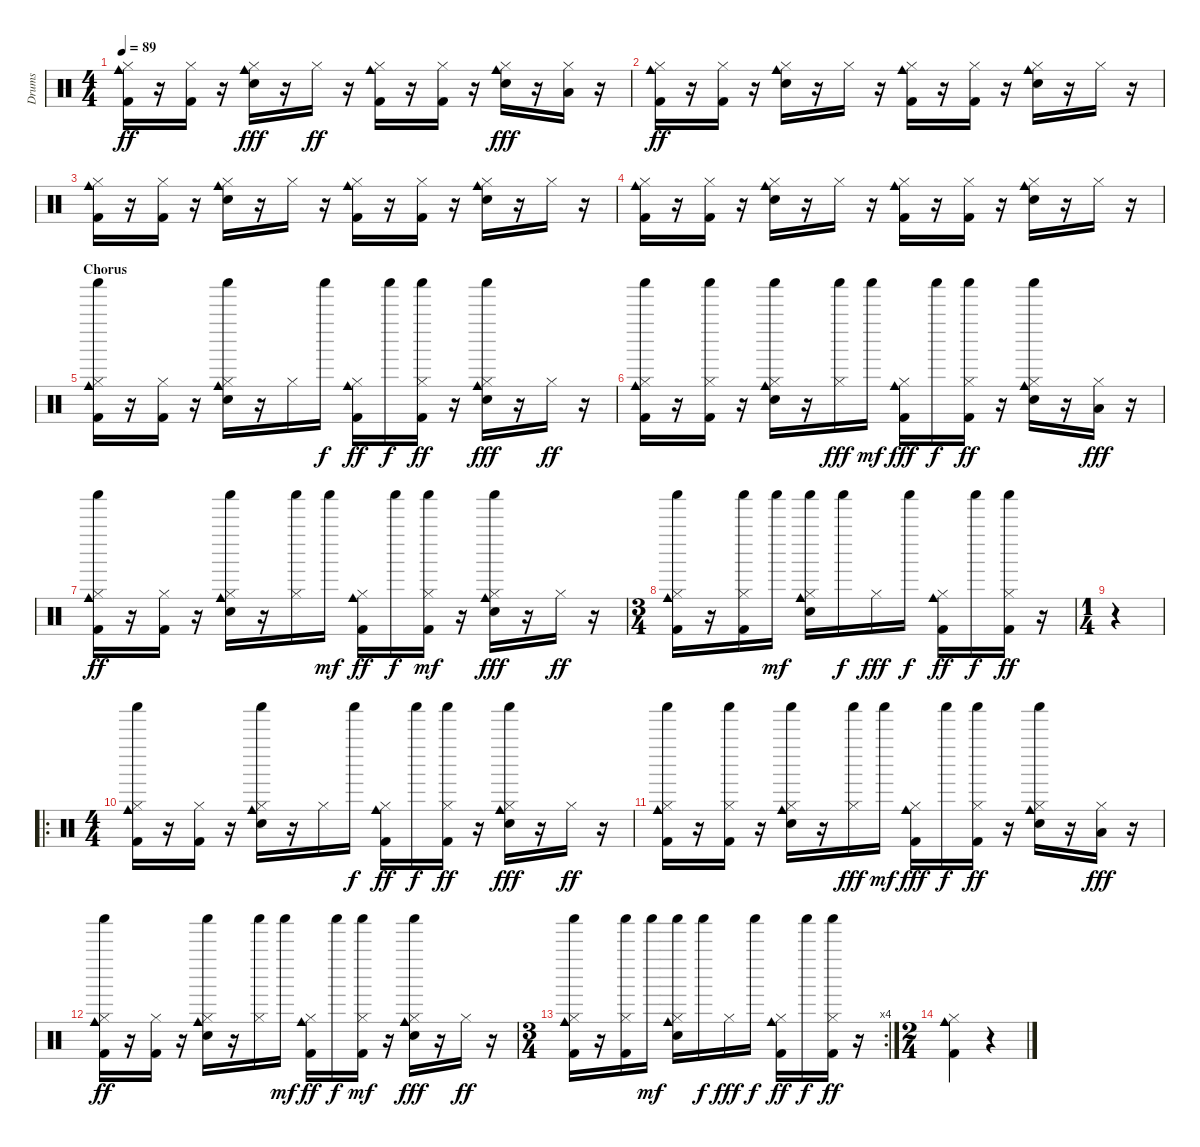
\track ("Drums" "Drums") {instrument percussion}
\staff {score}
\articulation defaults
\ts (4 4)
\tempo 89
\clef neutral
\ks c
("Kick (hit) 2" "Cowbell medium (hit)" "Hi-Hat (closed)").16{dy ff} r.16 ("Kick (hit) 2" "Hi-Hat (closed)").16 r.16 ("Hi-Hat (closed)" "Snare (hit) 2" "Cowbell medium (hit)").16{dy fff} r.16 "Hi-Hat (closed)".16{dy ff} r.16 ("Hi-Hat (closed)" "Kick (hit) 2" "Cowbell medium (hit)").16 r.16 ("Hi-Hat (closed)" "Kick (hit) 2").16 r.16 ("Hi-Hat (closed)" "Snare (hit) 2" "Cowbell medium (hit)").16{dy fff} r.16 ("Hi-Hat (closed)" "Low Floor Tom (hit)").16 r.16 |
("Hi-Hat (closed)" "Cowbell medium (hit)" "Kick (hit) 2").16{dy ff} r.16 ("Kick (hit) 2" "Hi-Hat (closed)").16 r.16 ("Snare (hit) 2" "Hi-Hat (closed)" "Cowbell medium (hit)").16 r.16 "Hi-Hat (closed)".16 r.16 ("Hi-Hat (closed)" "Kick (hit) 2" "Cowbell medium (hit)").16 r.16 ("Kick (hit) 2" "Hi-Hat (closed)").16 r.16 ("Snare (hit) 2" "Hi-Hat (closed)" "Cowbell medium (hit)").16 r.16 "Hi-Hat (closed)".16 r.16 |
("Hi-Hat (closed)" "Cowbell medium (hit)" "Kick (hit) 2").16 r.16 ("Kick (hit) 2" "Hi-Hat (closed)").16 r.16 ("Snare (hit) 2" "Hi-Hat (closed)" "Cowbell medium (hit)").16 r.16 "Hi-Hat (closed)".16 r.16 ("Hi-Hat (closed)" "Kick (hit) 2" "Cowbell medium (hit)").16 r.16 ("Kick (hit) 2" "Hi-Hat (closed)").16 r.16 ("Snare (hit) 2" "Hi-Hat (closed)" "Cowbell medium (hit)").16 r.16 "Hi-Hat (closed)".16 r.16 |
("Hi-Hat (closed)" "Cowbell medium (hit)" "Kick (hit) 2").16 r.16 ("Kick (hit) 2" "Hi-Hat (closed)").16 r.16 ("Snare (hit) 2" "Hi-Hat (closed)" "Cowbell medium (hit)").16 r.16 "Hi-Hat (closed)".16 r.16 ("Hi-Hat (closed)" "Kick (hit) 2" "Cowbell medium (hit)").16 r.16 ("Kick (hit) 2" "Hi-Hat (closed)").16 r.16 ("Snare (hit) 2" "Hi-Hat (closed)" "Cowbell medium (hit)").16 r.16 "Hi-Hat (closed)".16 r.16 |
\section ("" "Chorus")
("Cowbell medium (hit)" "Hi-Hat (closed)" "Kick (hit) 2" "Shaker (hit)").16 r.16 ("Hi-Hat (closed)" "Kick (hit) 2").16 r.16 ("Cowbell medium (hit)" "Hi-Hat (closed)" "Shaker (hit)" "Snare (hit) 2").16 r.16 "Hi-Hat (closed)".16 "Shaker (hit)".16{dy f} ("Kick (hit) 2" "Hi-Hat (closed)" "Cowbell medium (hit)").16{dy ff} "Shaker (hit)".16{dy f} ("Hi-Hat (closed)" "Shaker (hit)" "Kick (hit) 2").16{dy ff} r.16 ("Cowbell medium (hit)" "Shaker (hit)" "Hi-Hat (closed)" "Snare (hit) 2").16{dy fff} r.16 "Hi-Hat (closed)".16{dy ff} r.16 |
("Cowbell medium (hit)" "Kick (hit) 2" "Hi-Hat (closed)" "Shaker (hit)").16 r.16 ("Kick (hit) 2" "Shaker (hit)" "Hi-Hat (closed)").16 r.16 ("Cowbell medium (hit)" "Snare (hit) 2" "Shaker (hit)" "Hi-Hat (closed)").16 r.16 ("Shaker (hit)" "Hi-Hat (closed)").16{dy fff} "Shaker (hit)".16{dy mf} ("Cowbell medium (hit)" "Kick (hit) 2" "Hi-Hat (closed)").16{dy fff} "Shaker (hit)".16{dy f} ("Kick (hit) 2" "Shaker (hit)" "Hi-Hat (closed)").16{dy ff} r.16 ("Hi-Hat (closed)" "Snare (hit) 2" "Cowbell medium (hit)" "Shaker (hit)").16 r.16 ("Low Floor Tom (hit)" "Hi-Hat (closed)").16{dy fff} r.16 |
("Shaker (hit)" "Hi-Hat (closed)" "Kick (hit) 2" "Cowbell medium (hit)").16{dy ff} r.16 ("Kick (hit) 2" "Hi-Hat (closed)").16 r.16 ("Cowbell medium (hit)" "Snare (hit) 2" "Shaker (hit)" "Hi-Hat (closed)").16 r.16 ("Shaker (hit)" "Hi-Hat (closed)").16 "Shaker (hit)".16{dy mf} ("Cowbell medium (hit)" "Kick (hit) 2" "Hi-Hat (closed)").16{dy ff} "Shaker (hit)".16{dy f} ("Hi-Hat (closed)" "Kick (hit) 2" "Shaker (hit)").16{dy mf} r.16 ("Cowbell medium (hit)" "Hi-Hat (closed)" "Snare (hit) 2" "Shaker (hit)").16{dy fff} r.16 "Hi-Hat (closed)".16{dy ff} r.16 |
\ts (3 4)
("Shaker (hit)" "Hi-Hat (closed)" "Cowbell medium (hit)" "Kick (hit) 2").16 r.16 ("Shaker (hit)" "Hi-Hat (closed)" "Kick (hit) 2").16 "Shaker (hit)".16{dy mf} ("Hi-Hat (closed)" "Snare (hit) 2" "Shaker (hit)" "Cowbell medium (hit)").16 "Shaker (hit)".16{dy f} "Hi-Hat (closed)".16{dy fff} "Shaker (hit)".16{dy f} ("Hi-Hat (closed)" "Kick (hit) 2" "Cowbell medium (hit)").16{dy ff} "Shaker (hit)".16{dy f} ("Hi-Hat (closed)" "Shaker (hit)" "Kick (hit) 2").16{dy ff} r.16 |
\ts (1 4)
r.4 |
\ro
\ts (4 4)
("Cowbell medium (hit)" "Hi-Hat (closed)" "Kick (hit) 2" "Shaker (hit)").16 r.16 ("Hi-Hat (closed)" "Kick (hit) 2").16 r.16 ("Cowbell medium (hit)" "Hi-Hat (closed)" "Shaker (hit)" "Snare (hit) 2").16 r.16 "Hi-Hat (closed)".16 "Shaker (hit)".16{dy f} ("Kick (hit) 2" "Hi-Hat (closed)" "Cowbell medium (hit)").16{dy ff} "Shaker (hit)".16{dy f} ("Hi-Hat (closed)" "Shaker (hit)" "Kick (hit) 2").16{dy ff} r.16 ("Cowbell medium (hit)" "Shaker (hit)" "Hi-Hat (closed)" "Snare (hit) 2").16{dy fff} r.16 "Hi-Hat (closed)".16{dy ff} r.16 |
("Cowbell medium (hit)" "Kick (hit) 2" "Hi-Hat (closed)" "Shaker (hit)").16 r.16 ("Kick (hit) 2" "Shaker (hit)" "Hi-Hat (closed)").16 r.16 ("Cowbell medium (hit)" "Snare (hit) 2" "Shaker (hit)" "Hi-Hat (closed)").16 r.16 ("Shaker (hit)" "Hi-Hat (closed)").16{dy fff} "Shaker (hit)".16{dy mf} ("Cowbell medium (hit)" "Kick (hit) 2" "Hi-Hat (closed)").16{dy fff} "Shaker (hit)".16{dy f} ("Kick (hit) 2" "Shaker (hit)" "Hi-Hat (closed)").16{dy ff} r.16 ("Hi-Hat (closed)" "Snare (hit) 2" "Cowbell medium (hit)" "Shaker (hit)").16 r.16 ("Low Floor Tom (hit)" "Hi-Hat (closed)").16{dy fff} r.16 |
("Shaker (hit)" "Hi-Hat (closed)" "Kick (hit) 2" "Cowbell medium (hit)").16{dy ff} r.16 ("Kick (hit) 2" "Hi-Hat (closed)").16 r.16 ("Cowbell medium (hit)" "Snare (hit) 2" "Shaker (hit)" "Hi-Hat (closed)").16 r.16 ("Shaker (hit)" "Hi-Hat (closed)").16 "Shaker (hit)".16{dy mf} ("Cowbell medium (hit)" "Kick (hit) 2" "Hi-Hat (closed)").16{dy ff} "Shaker (hit)".16{dy f} ("Hi-Hat (closed)" "Kick (hit) 2" "Shaker (hit)").16{dy mf} r.16 ("Cowbell medium (hit)" "Hi-Hat (closed)" "Snare (hit) 2" "Shaker (hit)").16{dy fff} r.16 "Hi-Hat (closed)".16{dy ff} r.16 |
\rc 4
\ts (3 4)
("Shaker (hit)" "Hi-Hat (closed)" "Cowbell medium (hit)" "Kick (hit) 2").16 r.16 ("Shaker (hit)" "Hi-Hat (closed)" "Kick (hit) 2").16 "Shaker (hit)".16{dy mf} ("Hi-Hat (closed)" "Snare (hit) 2" "Shaker (hit)" "Cowbell medium (hit)").16 "Shaker (hit)".16{dy f} "Hi-Hat (closed)".16{dy fff} "Shaker (hit)".16{dy f} ("Hi-Hat (closed)" "Kick (hit) 2" "Cowbell medium (hit)").16{dy ff} "Shaker (hit)".16{dy f} ("Hi-Hat (closed)" "Shaker (hit)" "Kick (hit) 2").16{dy ff} r.16 |
\ts (2 4)
("Cowbell medium (hit)" "Hi-Hat (closed)" "Kick (hit) 2").4 r.4
